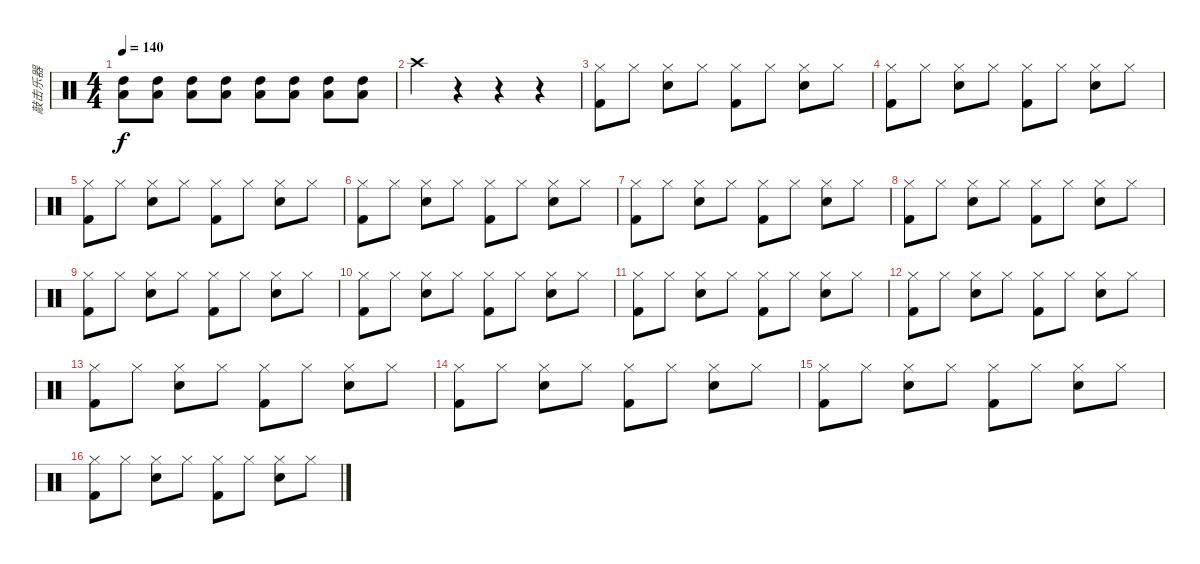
\track ("敲击乐器" "敲击乐器") {instrument percussion}
\staff {score}
\articulation defaults
\ts (4 4)
\tempo 140
\clef neutral
\ks c
("High Tom (hit)" "Low Tom (hit)").8{dy f} ("High Tom (hit)" "Low Tom (hit)").8 ("High Tom (hit)" "Low Tom (hit)").8 ("High Tom (hit)" "Low Tom (hit)").8 ("High Tom (hit)" "Low Tom (hit)").8 ("High Tom (hit)" "Low Tom (hit)").8 ("High Tom (hit)" "Low Tom (hit)").8 ("High Tom (hit)" "Low Tom (hit)").8 |
"Crash high (hit)".4 r.4 r.4 r.4 |
("Kick (hit) 2" "Hi-Hat (closed)").8 "Hi-Hat (closed)".8 ("Snare (hit) 2" "Hi-Hat (closed)").8 "Hi-Hat (closed)".8 ("Kick (hit) 2" "Hi-Hat (closed)").8 "Hi-Hat (closed)".8 ("Snare (hit) 2" "Hi-Hat (closed)").8 "Hi-Hat (closed)".8 |
("Kick (hit) 2" "Hi-Hat (closed)").8 "Hi-Hat (closed)".8 ("Snare (hit) 2" "Hi-Hat (closed)").8 "Hi-Hat (closed)".8 ("Kick (hit) 2" "Hi-Hat (closed)").8 "Hi-Hat (closed)".8 ("Snare (hit) 2" "Hi-Hat (closed)").8 "Hi-Hat (closed)".8 |
("Kick (hit) 2" "Hi-Hat (closed)").8 "Hi-Hat (closed)".8 ("Snare (hit) 2" "Hi-Hat (closed)").8 "Hi-Hat (closed)".8 ("Kick (hit) 2" "Hi-Hat (closed)").8 "Hi-Hat (closed)".8 ("Snare (hit) 2" "Hi-Hat (closed)").8 "Hi-Hat (closed)".8 |
("Kick (hit) 2" "Hi-Hat (closed)").8 "Hi-Hat (closed)".8 ("Snare (hit) 2" "Hi-Hat (closed)").8 "Hi-Hat (closed)".8 ("Kick (hit) 2" "Hi-Hat (closed)").8 "Hi-Hat (closed)".8 ("Snare (hit) 2" "Hi-Hat (closed)").8 "Hi-Hat (closed)".8 |
("Kick (hit) 2" "Hi-Hat (closed)").8 "Hi-Hat (closed)".8 ("Snare (hit) 2" "Hi-Hat (closed)").8 "Hi-Hat (closed)".8 ("Kick (hit) 2" "Hi-Hat (closed)").8 "Hi-Hat (closed)".8 ("Snare (hit) 2" "Hi-Hat (closed)").8 "Hi-Hat (closed)".8 |
("Kick (hit) 2" "Hi-Hat (closed)").8 "Hi-Hat (closed)".8 ("Snare (hit) 2" "Hi-Hat (closed)").8 "Hi-Hat (closed)".8 ("Kick (hit) 2" "Hi-Hat (closed)").8 "Hi-Hat (closed)".8 ("Snare (hit) 2" "Hi-Hat (closed)").8 "Hi-Hat (closed)".8 |
("Kick (hit) 2" "Hi-Hat (closed)").8 "Hi-Hat (closed)".8 ("Snare (hit) 2" "Hi-Hat (closed)").8 "Hi-Hat (closed)".8 ("Kick (hit) 2" "Hi-Hat (closed)").8 "Hi-Hat (closed)".8 ("Snare (hit) 2" "Hi-Hat (closed)").8 "Hi-Hat (closed)".8 |
("Kick (hit) 2" "Hi-Hat (closed)").8 "Hi-Hat (closed)".8 ("Snare (hit) 2" "Hi-Hat (closed)").8 "Hi-Hat (closed)".8 ("Kick (hit) 2" "Hi-Hat (closed)").8 "Hi-Hat (closed)".8 ("Snare (hit) 2" "Hi-Hat (closed)").8 "Hi-Hat (closed)".8 |
("Kick (hit) 2" "Hi-Hat (closed)").8 "Hi-Hat (closed)".8 ("Snare (hit) 2" "Hi-Hat (closed)").8 "Hi-Hat (closed)".8 ("Kick (hit) 2" "Hi-Hat (closed)").8 "Hi-Hat (closed)".8 ("Snare (hit) 2" "Hi-Hat (closed)").8 "Hi-Hat (closed)".8 |
("Kick (hit) 2" "Hi-Hat (closed)").8 "Hi-Hat (closed)".8 ("Snare (hit) 2" "Hi-Hat (closed)").8 "Hi-Hat (closed)".8 ("Kick (hit) 2" "Hi-Hat (closed)").8 "Hi-Hat (closed)".8 ("Snare (hit) 2" "Hi-Hat (closed)").8 "Hi-Hat (closed)".8 |
("Kick (hit) 2" "Hi-Hat (closed)").8 "Hi-Hat (closed)".8 ("Snare (hit) 2" "Hi-Hat (closed)").8 "Hi-Hat (closed)".8 ("Kick (hit) 2" "Hi-Hat (closed)").8 "Hi-Hat (closed)".8 ("Snare (hit) 2" "Hi-Hat (closed)").8 "Hi-Hat (closed)".8 |
("Kick (hit) 2" "Hi-Hat (closed)").8 "Hi-Hat (closed)".8 ("Snare (hit) 2" "Hi-Hat (closed)").8 "Hi-Hat (closed)".8 ("Kick (hit) 2" "Hi-Hat (closed)").8 "Hi-Hat (closed)".8 ("Snare (hit) 2" "Hi-Hat (closed)").8 "Hi-Hat (closed)".8 |
("Kick (hit) 2" "Hi-Hat (closed)").8 "Hi-Hat (closed)".8 ("Snare (hit) 2" "Hi-Hat (closed)").8 "Hi-Hat (closed)".8 ("Kick (hit) 2" "Hi-Hat (closed)").8 "Hi-Hat (closed)".8 ("Snare (hit) 2" "Hi-Hat (closed)").8 "Hi-Hat (closed)".8 |
("Kick (hit) 2" "Hi-Hat (closed)").8 "Hi-Hat (closed)".8 ("Snare (hit) 2" "Hi-Hat (closed)").8 "Hi-Hat (closed)".8 ("Kick (hit) 2" "Hi-Hat (closed)").8 "Hi-Hat (closed)".8 ("Snare (hit) 2" "Hi-Hat (closed)").8 "Hi-Hat (closed)".8
